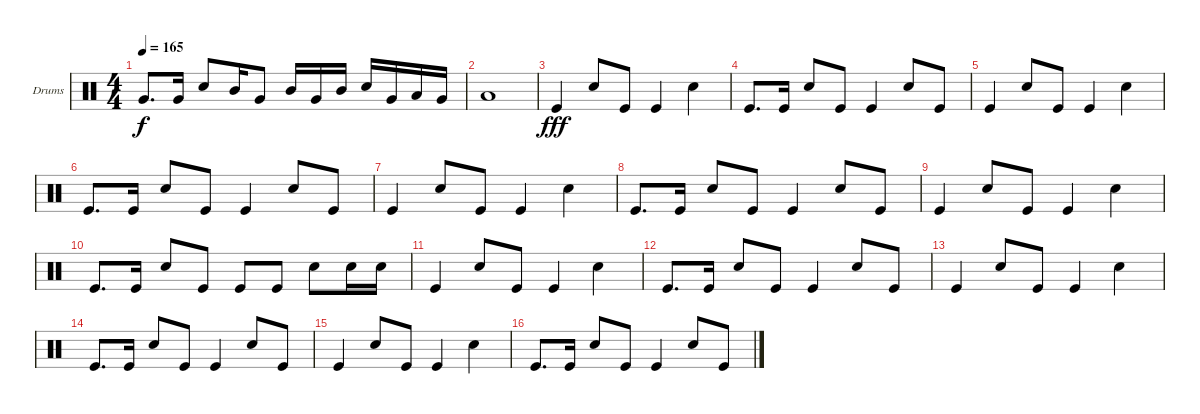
\defaultSystemsLayout 4
\bracketExtendMode groupsimilarinstruments
\firstSystemTrackNameOrientation horizontal
\otherSystemsTrackNameOrientation horizontal
\track ("Helders" "Drums") {instrument percussion}
\staff {score}
\articulation defaults
\ts (4 4)
\tempo 165
\clef neutral
\ks c "Very Low Tom (hit)".8{d dy f} "Very Low Tom (hit)".16 "Snare (hit) 2".8 "Mid Tom (hit)".16 "Very Low Tom (hit)".8 "Mid Tom (hit)".16 "Very Low Tom (hit)".16 "Mid Tom (hit)".16 "Snare (hit) 2".16 "Very Low Tom (hit)".16 "Low Tom (hit)".16 "Very Low Tom (hit)".16
|
"Low Tom (hit)".1 |
"Kick (hit)".4{dy fff} "Snare (hit) 2".8 "Kick (hit)".8 "Kick (hit)".4 "Snare (hit) 2".4 |
"Kick (hit)".8{d} "Kick (hit)".16 "Snare (hit) 2".8 "Kick (hit)".8 "Kick (hit)".4 "Snare (hit) 2".8 "Kick (hit)".8 |
"Kick (hit)".4 "Snare (hit) 2".8 "Kick (hit)".8 "Kick (hit)".4 "Snare (hit) 2".4 |
"Kick (hit)".8{d} "Kick (hit)".16 "Snare (hit) 2".8 "Kick (hit)".8 "Kick (hit)".4 "Snare (hit) 2".8 "Kick (hit)".8 |
"Kick (hit)".4 "Snare (hit) 2".8 "Kick (hit)".8 "Kick (hit)".4 "Snare (hit) 2".4 |
"Kick (hit)".8{d} "Kick (hit)".16 "Snare (hit) 2".8 "Kick (hit)".8 "Kick (hit)".4 "Snare (hit) 2".8 "Kick (hit)".8 |
"Kick (hit)".4 "Snare (hit) 2".8 "Kick (hit)".8 "Kick (hit)".4 "Snare (hit) 2".4 |
"Kick (hit)".8{d} "Kick (hit)".16 "Snare (hit) 2".8 "Kick (hit)".8 "Kick (hit)".8 "Kick (hit)".8 "Snare (hit) 2".8 "Snare (hit) 2".16 "Snare (hit) 2".16 |
"Kick (hit)".4 "Snare (hit) 2".8 "Kick (hit)".8 "Kick (hit)".4 "Snare (hit) 2".4 |
"Kick (hit)".8{d} "Kick (hit)".16 "Snare (hit) 2".8 "Kick (hit)".8 "Kick (hit)".4 "Snare (hit) 2".8 "Kick (hit)".8 |
"Kick (hit)".4 "Snare (hit) 2".8 "Kick (hit)".8 "Kick (hit)".4 "Snare (hit) 2".4 |
"Kick (hit)".8{d} "Kick (hit)".16 "Snare (hit) 2".8 "Kick (hit)".8 "Kick (hit)".4 "Snare (hit) 2".8 "Kick (hit)".8 |
"Kick (hit)".4 "Snare (hit) 2".8 "Kick (hit)".8 "Kick (hit)".4 "Snare (hit) 2".4 |
"Kick (hit)".8{d} "Kick (hit)".16 "Snare (hit) 2".8 "Kick (hit)".8 "Kick (hit)".4 "Snare (hit) 2".8 "Kick (hit)".8
